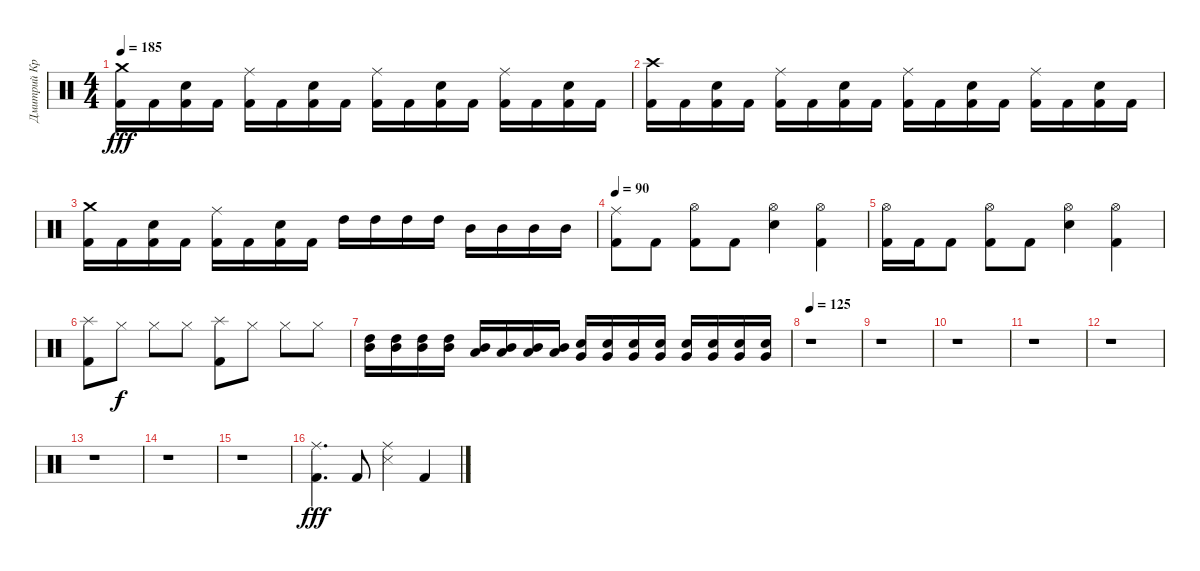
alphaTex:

\track ("Дмитрий Кривенков" "Дмитрий Кр") {instrument percussion}
\staff {score}
\articulation defaults
\ts (4 4)
\tempo 185
\clef neutral
\ks c
("Crash medium (hit)" "Kick (hit) 2").16{dy fff} "Kick (hit) 2".16 ("Kick (hit) 2" "Electric Snare (hit)").16 "Kick (hit) 2".16 ("Ride (middle)" "Kick (hit) 2").16 "Kick (hit) 2".16 ("Electric Snare (hit)" "Kick (hit) 2").16 "Kick (hit) 2".16 ("Ride (middle)" "Kick (hit) 2").16 "Kick (hit) 2".16 ("Electric Snare (hit)" "Kick (hit) 2").16 "Kick (hit) 2".16 ("Ride (middle)" "Kick (hit) 2").16 "Kick (hit) 2".16 ("Electric Snare (hit)" "Kick (hit) 2").16 "Kick (hit) 2".16 |
("Crash high (hit)" "Kick (hit) 2").16 "Kick (hit) 2".16 ("Kick (hit) 2" "Electric Snare (hit)").16 "Kick (hit) 2".16 ("Ride (middle)" "Kick (hit) 2").16 "Kick (hit) 2".16 ("Electric Snare (hit)" "Kick (hit) 2").16 "Kick (hit) 2".16 ("Ride (middle)" "Kick (hit) 2").16 "Kick (hit) 2".16 ("Electric Snare (hit)" "Kick (hit) 2").16 "Kick (hit) 2".16 ("Ride (middle)" "Kick (hit) 2").16 "Kick (hit) 2".16 ("Electric Snare (hit)" "Kick (hit) 2").16 "Kick (hit) 2".16 |
("Crash medium (hit)" "Kick (hit) 2").16 "Kick (hit) 2".16 ("Kick (hit) 2" "Electric Snare (hit)").16 "Kick (hit) 2".16 ("Ride (middle)" "Kick (hit) 2").16 "Kick (hit) 2".16 ("Electric Snare (hit)" "Kick (hit) 2").16 "Kick (hit) 2".16 "High Tom (hit)".16 "High Tom (hit)".16 "High Tom (hit)".16 "High Tom (hit)".16 "Mid Tom (hit)".16 "Mid Tom (hit)".16 "Mid Tom (hit)".16 "Mid Tom (hit)".16 |
\tempo 90
("Ride (middle)" "Kick (hit) 2").8 "Kick (hit) 2".8 ("Hi-Hat (open)" "Kick (hit) 2").8 "Kick (hit) 2".8 ("Hi-Hat (open)" "Electric Snare (hit)").4 ("Hi-Hat (open)" "Kick (hit) 2").4 |
("Hi-Hat (open)" "Kick (hit) 2").16 "Kick (hit) 2".16 "Kick (hit) 2".8 ("Hi-Hat (open)" "Kick (hit) 2").8 "Kick (hit) 2".8 ("Hi-Hat (open)" "Electric Snare (hit)").4 ("Hi-Hat (open)" "Kick (hit) 2").4 |
("Splash (hit)" "Kick (hit) 2").8 "Hi-Hat (closed)".8{dy f} "Hi-Hat (closed)".8 "Hi-Hat (closed)".8 ("Splash (hit)" "Kick (hit) 2").8 "Hi-Hat (closed)".8 "Hi-Hat (closed)".8 "Hi-Hat (closed)".8 |
("Mid Tom (hit)" "High Tom (hit)").16 ("Mid Tom (hit)" "High Tom (hit)").16 ("Mid Tom (hit)" "High Tom (hit)").16 ("Mid Tom (hit)" "High Tom (hit)").16 ("Low Tom (hit)" "Mid Tom (hit)").16 ("Low Tom (hit)" "Mid Tom (hit)").16 ("Low Tom (hit)" "Mid Tom (hit)").16 ("Low Tom (hit)" "Mid Tom (hit)").16 ("Very Low Tom (hit)" "Electric Snare (hit)").16 ("Very Low Tom (hit)" "Electric Snare (hit)").16 ("Very Low Tom (hit)" "Electric Snare (hit)").16 ("Very Low Tom (hit)" "Electric Snare (hit)").16 ("Electric Snare (hit)" "Very Low Tom (hit)").16 ("Electric Snare (hit)" "Very Low Tom (hit)").16 ("Electric Snare (hit)" "Very Low Tom (hit)").16 ("Electric Snare (hit)" "Very Low Tom (hit)").16 |
\tempo 125
r.1 |
r.1 |
r.1 |
r.1 |
r.1 |
r.1 |
r.1 |
r.1 |
("Ride (middle)" "Kick (hit) 2").4{d dy fff} "Kick (hit) 2".8 ("Ride (middle)" "Snare (side stick) 3").4 "Kick (hit) 2".4
